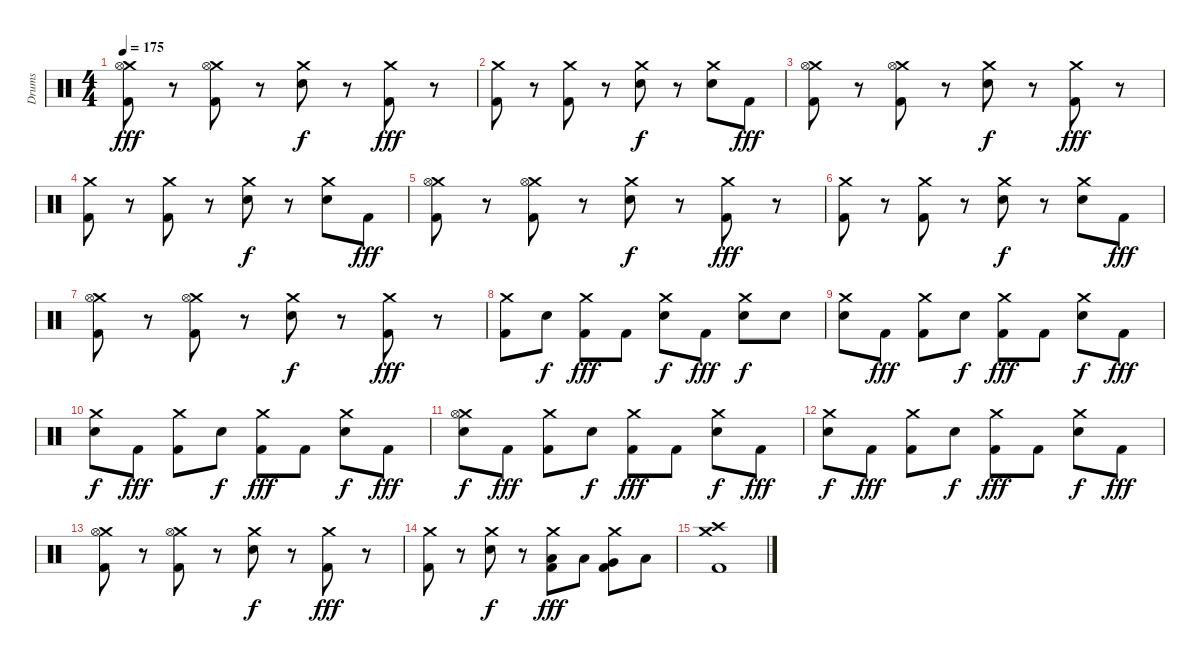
\track ("Drums" "Drums") {instrument percussion}
\staff {score}
\articulation defaults
\ts (4 4)
\tempo 175
\clef neutral
\ks c
("Crash medium (hit)" "Hi-Hat (open)" "Kick (hit) 2").8{dy fff} r.8 ("Crash medium (hit)" "Hi-Hat (open)" "Kick (hit) 2").8 r.8 ("Crash medium (hit)" "Electric Snare (hit)").8{dy f} r.8 ("Crash medium (hit)" "Kick (hit) 2").8{dy fff} r.8 |
("Crash medium (hit)" "Kick (hit) 2").8 r.8 ("Crash medium (hit)" "Kick (hit) 2").8 r.8 ("Crash medium (hit)" "Electric Snare (hit)").8{dy f} r.8 ("Crash medium (hit)" "Electric Snare (hit)").8 "Kick (hit) 2".8{dy fff} |
("Crash medium (hit)" "Hi-Hat (open)" "Kick (hit) 2").8 r.8 ("Crash medium (hit)" "Hi-Hat (open)" "Kick (hit) 2").8 r.8 ("Crash medium (hit)" "Electric Snare (hit)").8{dy f} r.8 ("Crash medium (hit)" "Kick (hit) 2").8{dy fff} r.8 |
("Crash medium (hit)" "Kick (hit) 2").8 r.8 ("Crash medium (hit)" "Kick (hit) 2").8 r.8 ("Crash medium (hit)" "Electric Snare (hit)").8{dy f} r.8 ("Crash medium (hit)" "Electric Snare (hit)").8 "Kick (hit) 2".8{dy fff} |
("Crash medium (hit)" "Hi-Hat (open)" "Kick (hit) 2").8 r.8 ("Crash medium (hit)" "Hi-Hat (open)" "Kick (hit) 2").8 r.8 ("Crash medium (hit)" "Electric Snare (hit)").8{dy f} r.8 ("Crash medium (hit)" "Kick (hit) 2").8{dy fff} r.8 |
("Crash medium (hit)" "Kick (hit) 2").8 r.8 ("Crash medium (hit)" "Kick (hit) 2").8 r.8 ("Crash medium (hit)" "Electric Snare (hit)").8{dy f} r.8 ("Crash medium (hit)" "Electric Snare (hit)").8 "Kick (hit) 2".8{dy fff} |
("Crash medium (hit)" "Hi-Hat (open)" "Kick (hit) 2").8 r.8 ("Crash medium (hit)" "Hi-Hat (open)" "Kick (hit) 2").8 r.8 ("Crash medium (hit)" "Electric Snare (hit)").8{dy f} r.8 ("Crash medium (hit)" "Kick (hit) 2").8{dy fff} r.8 |
("Crash medium (hit)" "Kick (hit) 2").8 "Electric Snare (hit)".8{dy f} ("Crash medium (hit)" "Kick (hit) 2").8{dy fff} "Kick (hit) 2".8 ("Crash medium (hit)" "Electric Snare (hit)").8{dy f} "Kick (hit) 2".8{dy fff} ("Crash medium (hit)" "Electric Snare (hit)").8{dy f} "Electric Snare (hit)".8 |
("Crash medium (hit)" "Electric Snare (hit)").8 "Kick (hit) 2".8{dy fff} ("Crash medium (hit)" "Kick (hit) 2").8 "Electric Snare (hit)".8{dy f} ("Crash medium (hit)" "Kick (hit) 2").8{dy fff} "Kick (hit) 2".8 ("Crash medium (hit)" "Electric Snare (hit)").8{dy f} "Kick (hit) 2".8{dy fff} |
("Crash medium (hit)" "Electric Snare (hit)").8{dy f} "Kick (hit) 2".8{dy fff} ("Crash medium (hit)" "Kick (hit) 2").8 "Electric Snare (hit)".8{dy f} ("Crash medium (hit)" "Kick (hit) 2").8{dy fff} "Kick (hit) 2".8 ("Crash medium (hit)" "Electric Snare (hit)").8{dy f} "Kick (hit) 2".8{dy fff} |
("Crash medium (hit)" "Hi-Hat (open)" "Electric Snare (hit)").8{dy f} "Kick (hit) 2".8{dy fff} ("Crash medium (hit)" "Kick (hit) 2").8 "Electric Snare (hit)".8{dy f} ("Crash medium (hit)" "Kick (hit) 2").8{dy fff} "Kick (hit) 2".8 ("Crash medium (hit)" "Electric Snare (hit)").8{dy f} "Kick (hit) 2".8{dy fff} |
("Crash medium (hit)" "Electric Snare (hit)").8{dy f} "Kick (hit) 2".8{dy fff} ("Crash medium (hit)" "Kick (hit) 2").8 "Electric Snare (hit)".8{dy f} ("Crash medium (hit)" "Kick (hit) 2").8{dy fff} "Kick (hit) 2".8 ("Crash medium (hit)" "Electric Snare (hit)").8{dy f} "Kick (hit) 2".8{dy fff} |
("Crash medium (hit)" "Hi-Hat (open)" "Kick (hit) 2").8 r.8 ("Crash medium (hit)" "Hi-Hat (open)" "Kick (hit) 2").8 r.8 ("Crash medium (hit)" "Electric Snare (hit)").8{dy f} r.8 ("Crash medium (hit)" "Kick (hit) 2").8{dy fff} r.8 |
("Crash medium (hit)" "Kick (hit) 2").8 r.8 ("Crash medium (hit)" "Electric Snare (hit)").8{dy f} r.8 ("Crash medium (hit)" "Low Tom (hit)" "Kick (hit) 2").8{dy fff} "Low Tom (hit)".8 ("Crash medium (hit)" "Very Low Tom (hit)" "Kick (hit) 2").8 "Low Floor Tom (hit)".8 |
("Crash medium (hit)" "Crash high (hit)" "Kick (hit) 2").1
